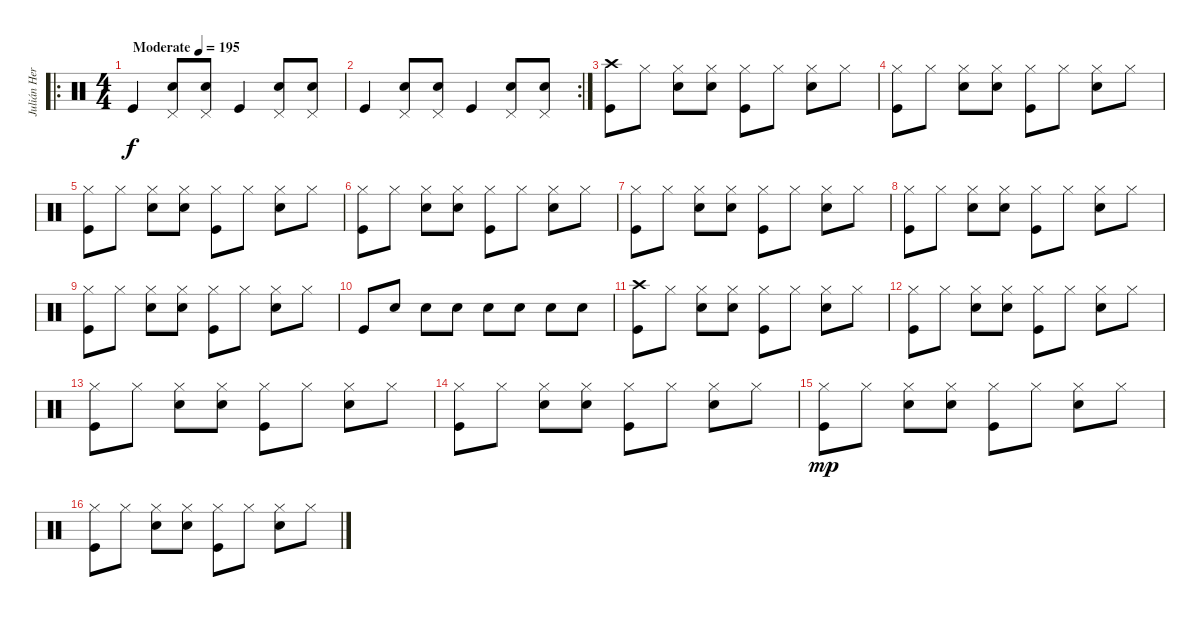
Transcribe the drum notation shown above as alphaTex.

\track ("Julián Hernandez" "Julián Her") {instrument percussion}
\staff {score}
\articulation defaults
\ro
\ts (4 4)
\tempo (195 "Moderate")
\clef neutral
\ks c "Kick (hit)".4{dy f}
("Electric Snare (hit)" "Pedal Hi-Hat (hit)").8 ("Electric Snare (hit)" "Pedal Hi-Hat (hit)").8 "Kick (hit)".4 ("Electric Snare (hit)" "Pedal Hi-Hat (hit)").8 ("Electric Snare (hit)" "Pedal Hi-Hat (hit)").8 |
\rc 2 "Kick (hit)".4
("Electric Snare (hit)" "Pedal Hi-Hat (hit)").8 ("Electric Snare (hit)" "Pedal Hi-Hat (hit)").8 "Kick (hit)".4 ("Electric Snare (hit)" "Pedal Hi-Hat (hit)").8 ("Electric Snare (hit)" "Pedal Hi-Hat (hit)").8 |
("Crash high (hit)" "Kick (hit)").8 "Hi-Hat (closed)".8 ("Hi-Hat (closed)" "Electric Snare (hit)").8 ("Hi-Hat (closed)" "Electric Snare (hit)").8 ("Hi-Hat (closed)" "Kick (hit)").8 "Hi-Hat (closed)".8 ("Hi-Hat (closed)" "Electric Snare (hit)").8 "Hi-Hat (closed)".8 |
("Hi-Hat (closed)" "Kick (hit)").8 "Hi-Hat (closed)".8 ("Hi-Hat (closed)" "Electric Snare (hit)").8 ("Hi-Hat (closed)" "Electric Snare (hit)").8 ("Hi-Hat (closed)" "Kick (hit)").8 "Hi-Hat (closed)".8 ("Hi-Hat (closed)" "Electric Snare (hit)").8 "Hi-Hat (closed)".8 |
("Hi-Hat (closed)" "Kick (hit)").8 "Hi-Hat (closed)".8 ("Hi-Hat (closed)" "Electric Snare (hit)").8 ("Hi-Hat (closed)" "Electric Snare (hit)").8 ("Hi-Hat (closed)" "Kick (hit)").8 "Hi-Hat (closed)".8 ("Hi-Hat (closed)" "Electric Snare (hit)").8 "Hi-Hat (closed)".8 |
("Hi-Hat (closed)" "Kick (hit)").8 "Hi-Hat (closed)".8 ("Hi-Hat (closed)" "Electric Snare (hit)").8 ("Hi-Hat (closed)" "Electric Snare (hit)").8 ("Hi-Hat (closed)" "Kick (hit)").8 "Hi-Hat (closed)".8 ("Hi-Hat (closed)" "Electric Snare (hit)").8 "Hi-Hat (closed)".8 |
("Hi-Hat (closed)" "Kick (hit)").8 "Hi-Hat (closed)".8 ("Hi-Hat (closed)" "Electric Snare (hit)").8 ("Hi-Hat (closed)" "Electric Snare (hit)").8 ("Hi-Hat (closed)" "Kick (hit)").8 "Hi-Hat (closed)".8 ("Hi-Hat (closed)" "Electric Snare (hit)").8 "Hi-Hat (closed)".8 |
("Hi-Hat (closed)" "Kick (hit)").8 "Hi-Hat (closed)".8 ("Hi-Hat (closed)" "Electric Snare (hit)").8 ("Hi-Hat (closed)" "Electric Snare (hit)").8 ("Hi-Hat (closed)" "Kick (hit)").8 "Hi-Hat (closed)".8 ("Hi-Hat (closed)" "Electric Snare (hit)").8 "Hi-Hat (closed)".8 |
("Hi-Hat (closed)" "Kick (hit)").8 "Hi-Hat (closed)".8 ("Hi-Hat (closed)" "Electric Snare (hit)").8 ("Hi-Hat (closed)" "Electric Snare (hit)").8 ("Hi-Hat (closed)" "Kick (hit)").8 "Hi-Hat (closed)".8 ("Hi-Hat (closed)" "Electric Snare (hit)").8 "Hi-Hat (closed)".8 |
"Kick (hit)".8 "Electric Snare (hit)".8 "Electric Snare (hit)".8 "Electric Snare (hit)".8 "Electric Snare (hit)".8 "Electric Snare (hit)".8 "Electric Snare (hit)".8 "Electric Snare (hit)".8 |
("Crash high (hit)" "Kick (hit)").8 "Hi-Hat (closed)".8 ("Hi-Hat (closed)" "Electric Snare (hit)").8 ("Hi-Hat (closed)" "Electric Snare (hit)").8 ("Hi-Hat (closed)" "Kick (hit)").8 "Hi-Hat (closed)".8 ("Hi-Hat (closed)" "Electric Snare (hit)").8 "Hi-Hat (closed)".8 |
("Hi-Hat (closed)" "Kick (hit)").8 "Hi-Hat (closed)".8 ("Hi-Hat (closed)" "Electric Snare (hit)").8 ("Hi-Hat (closed)" "Electric Snare (hit)").8 ("Hi-Hat (closed)" "Kick (hit)").8 "Hi-Hat (closed)".8 ("Hi-Hat (closed)" "Electric Snare (hit)").8 "Hi-Hat (closed)".8 |
("Hi-Hat (closed)" "Kick (hit)").8 "Hi-Hat (closed)".8 ("Hi-Hat (closed)" "Electric Snare (hit)").8 ("Hi-Hat (closed)" "Electric Snare (hit)").8 ("Hi-Hat (closed)" "Kick (hit)").8 "Hi-Hat (closed)".8 ("Hi-Hat (closed)" "Electric Snare (hit)").8 "Hi-Hat (closed)".8 |
("Hi-Hat (closed)" "Kick (hit)").8 "Hi-Hat (closed)".8 ("Hi-Hat (closed)" "Electric Snare (hit)").8 ("Hi-Hat (closed)" "Electric Snare (hit)").8 ("Hi-Hat (closed)" "Kick (hit)").8 "Hi-Hat (closed)".8 ("Hi-Hat (closed)" "Electric Snare (hit)").8 "Hi-Hat (closed)".8 |
("Hi-Hat (closed)" "Kick (hit)").8{dy mp} "Hi-Hat (closed)".8 ("Hi-Hat (closed)" "Electric Snare (hit)").8 ("Hi-Hat (closed)" "Electric Snare (hit)").8 ("Hi-Hat (closed)" "Kick (hit)").8 "Hi-Hat (closed)".8 ("Hi-Hat (closed)" "Electric Snare (hit)").8 "Hi-Hat (closed)".8 |
("Hi-Hat (closed)" "Kick (hit)").8 "Hi-Hat (closed)".8 ("Hi-Hat (closed)" "Electric Snare (hit)").8 ("Hi-Hat (closed)" "Electric Snare (hit)").8 ("Hi-Hat (closed)" "Kick (hit)").8 "Hi-Hat (closed)".8 ("Hi-Hat (closed)" "Electric Snare (hit)").8 "Hi-Hat (closed)".8
